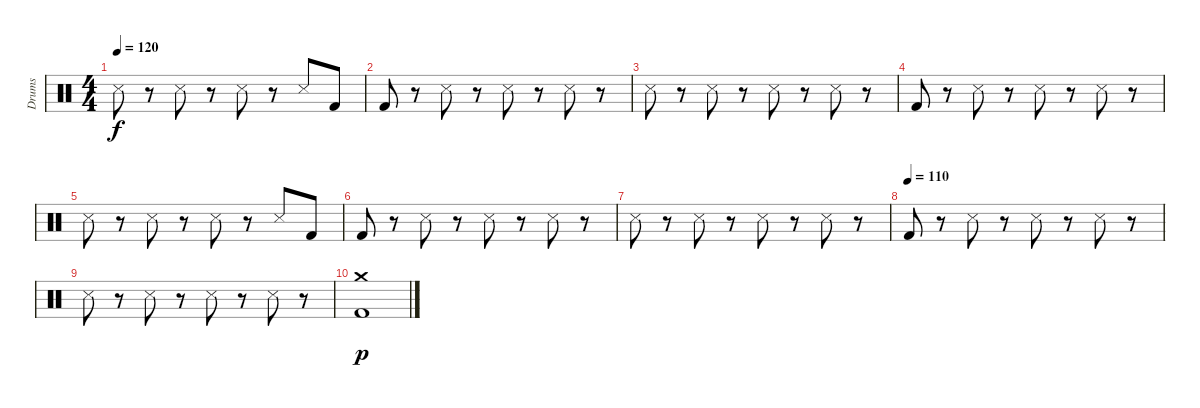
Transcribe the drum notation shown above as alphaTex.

\track ("Drums" "Drums") {instrument percussion}
\staff {score}
\articulation defaults
\ts (4 4)
\tempo 120
\clef neutral
\ks c "Snare (side stick) 3".8{dy f}
r.8 "Snare (side stick) 3".8 r.8 "Snare (side stick) 3".8 r.8 "Snare (side stick) 3".8 "Kick (hit) 2".8 |
"Kick (hit) 2".8 r.8 "Snare (side stick) 3".8 r.8 "Snare (side stick) 3".8 r.8 "Snare (side stick) 3".8 r.8 |
"Snare (side stick) 3".8 r.8 "Snare (side stick) 3".8 r.8 "Snare (side stick) 3".8 r.8 "Snare (side stick) 3".8 r.8 |
"Kick (hit) 2".8 r.8 "Snare (side stick) 3".8 r.8 "Snare (side stick) 3".8 r.8 "Snare (side stick) 3".8 r.8 |
"Snare (side stick) 3".8 r.8 "Snare (side stick) 3".8 r.8 "Snare (side stick) 3".8 r.8 "Snare (side stick) 3".8 "Kick (hit) 2".8 |
"Kick (hit) 2".8 r.8 "Snare (side stick) 3".8 r.8 "Snare (side stick) 3".8 r.8 "Snare (side stick) 3".8 r.8 |
"Snare (side stick) 3".8 r.8 "Snare (side stick) 3".8 r.8 "Snare (side stick) 3".8 r.8 "Snare (side stick) 3".8 r.8 |
\tempo (110)
"Kick (hit) 2".8 r.8 "Snare (side stick) 3".8 r.8 "Snare (side stick) 3".8 r.8 "Snare (side stick) 3".8 r.8 |
"Snare (side stick) 3".8 r.8 "Snare (side stick) 3".8 r.8 "Snare (side stick) 3".8 r.8 "Snare (side stick) 3".8 r.8 |
("Kick (hit) 2" "Crash medium (hit)").1{dy p}
